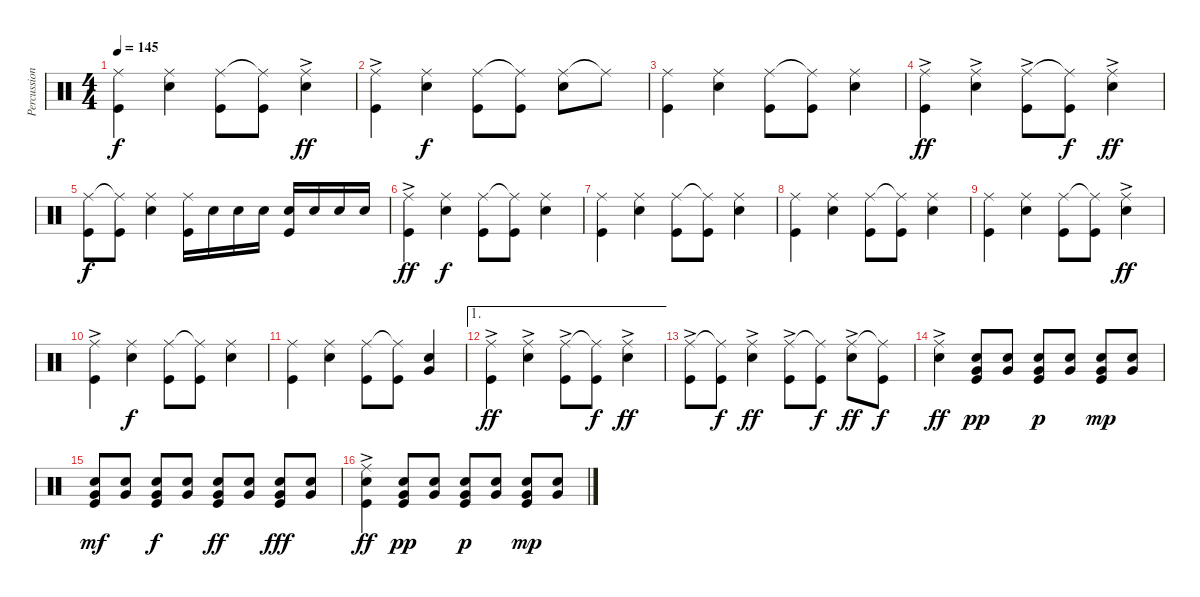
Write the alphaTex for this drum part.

\track ("Percussion" "Percussion") {instrument percussion}
\staff {score}
\articulation defaults
\ts (4 4)
\tempo 145
\clef neutral
\ks c
("Ride (middle)" "Kick (hit)").4{dy f} ("Ride (middle)" "Snare (hit) 2").4 ("Ride (middle)" "Kick (hit)").8 ("Ride (middle)"{t} "Kick (hit)").8 ("Ride (middle)"{ac} "Snare (hit) 2").4{dy ff} |
("Ride (middle)"{ac} "Kick (hit)").4 ("Ride (middle)" "Snare (hit) 2").4{dy f} ("Ride (middle)" "Kick (hit)").8 ("Ride (middle)"{t} "Kick (hit)").8 ("Ride (middle)" "Snare (hit) 2").8 "Ride (middle)"{t}.8 |
("Ride (middle)" "Kick (hit)").4 ("Ride (middle)" "Snare (hit) 2").4 ("Ride (middle)" "Kick (hit)").8 ("Ride (middle)"{t} "Kick (hit)").8 ("Ride (middle)" "Snare (hit) 2").4 |
("Ride (middle)"{ac} "Kick (hit)").4{dy ff} ("Ride (middle)"{ac} "Snare (hit) 2").4 ("Ride (middle)"{ac} "Kick (hit)").8 ("Ride (middle)"{t} "Kick (hit)").8{dy f} ("Ride (middle)"{ac} "Snare (hit) 2").4{dy ff} |
("Ride (middle)" "Kick (hit)").8{dy f} ("Ride (middle)"{t} "Kick (hit)").8 ("Ride (middle)" "Snare (hit) 2").4 ("Ride (middle)" "Kick (hit)").16 "Snare (hit) 2".16 "Snare (hit) 2".16 "Snare (hit) 2".16 ("Snare (hit) 2" "Kick (hit)").16 "Snare (hit) 2".16 "Snare (hit) 2".16 "Snare (hit) 2".16 |
("Ride (middle)"{ac} "Kick (hit)").4{dy ff} ("Ride (middle)" "Snare (hit) 2").4{dy f} ("Ride (middle)" "Kick (hit)").8 ("Ride (middle)"{t} "Kick (hit)").8 ("Ride (middle)" "Snare (hit) 2").4 |
("Ride (middle)" "Kick (hit)").4 ("Ride (middle)" "Snare (hit) 2").4 ("Ride (middle)" "Kick (hit)").8 ("Ride (middle)"{t} "Kick (hit)").8 ("Ride (middle)" "Snare (hit) 2").4 |
("Ride (middle)" "Kick (hit)").4 ("Ride (middle)" "Snare (hit) 2").4 ("Ride (middle)" "Kick (hit)").8 ("Ride (middle)"{t} "Kick (hit)").8 ("Ride (middle)" "Snare (hit) 2").4 |
("Ride (middle)" "Kick (hit)").4 ("Ride (middle)" "Snare (hit) 2").4 ("Ride (middle)" "Kick (hit)").8 ("Ride (middle)"{t} "Kick (hit)").8 ("Ride (middle)"{ac} "Snare (hit) 2").4{dy ff} |
("Ride (middle)"{ac} "Kick (hit)").4 ("Ride (middle)" "Snare (hit) 2").4{dy f} ("Ride (middle)" "Kick (hit)").8 ("Ride (middle)"{t} "Kick (hit)").8 ("Ride (middle)" "Snare (hit) 2").4 |
("Ride (middle)" "Kick (hit)").4 ("Ride (middle)" "Snare (hit) 2").4 ("Ride (middle)" "Kick (hit)").8 ("Ride (middle)"{t} "Kick (hit)").8 ("Snare (hit) 2" "Very Low Tom (hit)").4 |
\ae 1
("Ride (middle)"{ac} "Kick (hit)").4{dy ff} ("Ride (middle)"{ac} "Snare (hit) 2").4 ("Ride (middle)"{ac} "Kick (hit)").8 ("Ride (middle)"{t} "Kick (hit)").8{dy f} ("Ride (middle)"{ac} "Snare (hit) 2").4{dy ff} |
("Ride (middle)"{ac} "Kick (hit)").8 ("Ride (middle)"{t} "Kick (hit)").8{dy f} ("Ride (middle)"{ac} "Snare (hit) 2").4{dy ff} ("Ride (middle)"{ac} "Kick (hit)").8 ("Ride (middle)"{t} "Kick (hit)").8{dy f} ("Ride (middle)"{ac} "Snare (hit) 2").8{dy ff} ("Ride (middle)"{t} "Kick (hit)").8{dy f} |
("Ride (middle)"{ac} "Snare (hit) 2").4{dy ff} ("Snare (hit) 2" "Very Low Tom (hit)" "Kick (hit)").8{dy pp} ("Snare (hit) 2" "Very Low Tom (hit)").8 ("Snare (hit) 2" "Very Low Tom (hit)" "Kick (hit)").8{dy p} ("Snare (hit) 2" "Very Low Tom (hit)").8 ("Snare (hit) 2" "Very Low Tom (hit)" "Kick (hit)").8{dy mp} ("Snare (hit) 2" "Very Low Tom (hit)").8 |
("Snare (hit) 2" "Very Low Tom (hit)" "Kick (hit)").8{dy mf} ("Snare (hit) 2" "Very Low Tom (hit)").8 ("Snare (hit) 2" "Very Low Tom (hit)" "Kick (hit)").8{dy f} ("Snare (hit) 2" "Very Low Tom (hit)").8 ("Snare (hit) 2" "Very Low Tom (hit)" "Kick (hit)").8{dy ff} ("Snare (hit) 2" "Very Low Tom (hit)").8 ("Snare (hit) 2" "Very Low Tom (hit)" "Kick (hit)").8{dy fff} ("Snare (hit) 2" "Very Low Tom (hit)").8 |
("Ride (middle)"{ac} "Snare (hit) 2" "Kick (hit)").4{dy ff} ("Snare (hit) 2" "Very Low Tom (hit)" "Kick (hit)").8{dy pp} ("Snare (hit) 2" "Very Low Tom (hit)").8 ("Snare (hit) 2" "Very Low Tom (hit)" "Kick (hit)").8{dy p} ("Snare (hit) 2" "Very Low Tom (hit)").8 ("Snare (hit) 2" "Very Low Tom (hit)" "Kick (hit)").8{dy mp} ("Snare (hit) 2" "Very Low Tom (hit)").8
